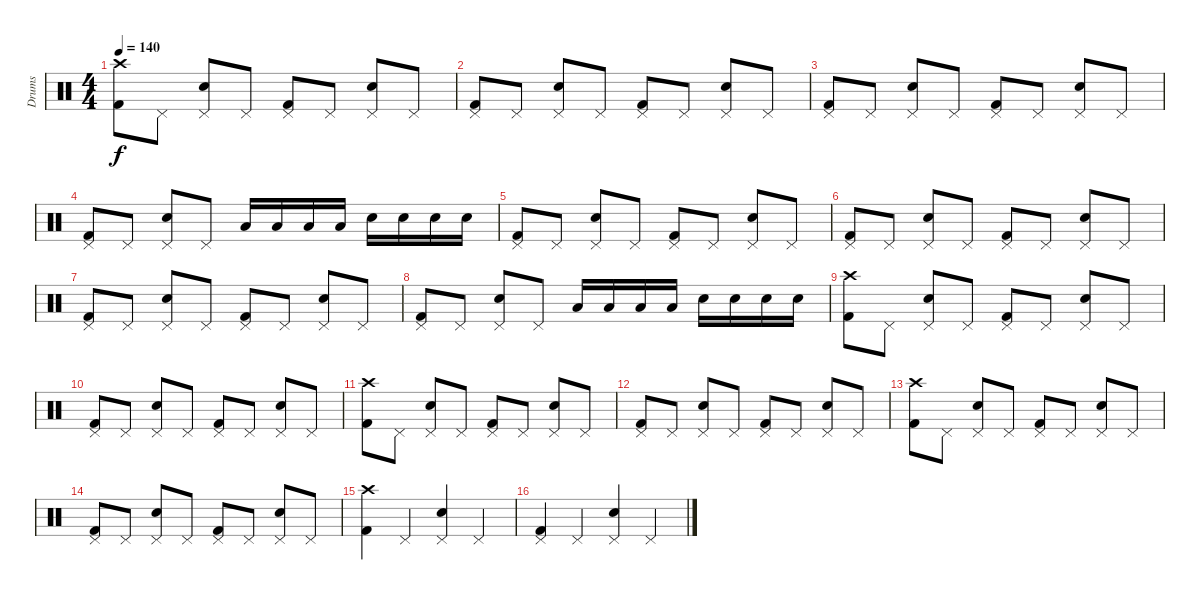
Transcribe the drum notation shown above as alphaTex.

\track ("Drums" "Drums") {instrument percussion}
\staff {score}
\articulation defaults
\ts (4 4)
\tempo 140
\clef neutral
\ks c
("Crash high (hit)" "Kick (hit) 2").8{dy f} "Pedal Hi-Hat (hit)".8 ("Pedal Hi-Hat (hit)" "Snare (hit) 2").8 "Pedal Hi-Hat (hit)".8 ("Pedal Hi-Hat (hit)" "Kick (hit) 2").8 "Pedal Hi-Hat (hit)".8 ("Pedal Hi-Hat (hit)" "Snare (hit) 2").8 "Pedal Hi-Hat (hit)".8 |
("Pedal Hi-Hat (hit)" "Kick (hit) 2").8 "Pedal Hi-Hat (hit)".8 ("Pedal Hi-Hat (hit)" "Snare (hit) 2").8 "Pedal Hi-Hat (hit)".8 ("Pedal Hi-Hat (hit)" "Kick (hit) 2").8 "Pedal Hi-Hat (hit)".8 ("Pedal Hi-Hat (hit)" "Snare (hit) 2").8 "Pedal Hi-Hat (hit)".8 |
("Pedal Hi-Hat (hit)" "Kick (hit) 2").8 "Pedal Hi-Hat (hit)".8 ("Pedal Hi-Hat (hit)" "Snare (hit) 2").8 "Pedal Hi-Hat (hit)".8 ("Pedal Hi-Hat (hit)" "Kick (hit) 2").8 "Pedal Hi-Hat (hit)".8 ("Pedal Hi-Hat (hit)" "Snare (hit) 2").8 "Pedal Hi-Hat (hit)".8 |
("Pedal Hi-Hat (hit)" "Kick (hit) 2").8 "Pedal Hi-Hat (hit)".8 ("Pedal Hi-Hat (hit)" "Snare (hit) 2").8 "Pedal Hi-Hat (hit)".8 "Low Tom (hit)".16 "Low Tom (hit)".16 "Low Tom (hit)".16 "Low Tom (hit)".16 "Snare (hit) 2".16 "Snare (hit) 2".16 "Snare (hit) 2".16 "Snare (hit) 2".16 |
("Pedal Hi-Hat (hit)" "Kick (hit) 2").8 "Pedal Hi-Hat (hit)".8 ("Pedal Hi-Hat (hit)" "Snare (hit) 2").8 "Pedal Hi-Hat (hit)".8 ("Pedal Hi-Hat (hit)" "Kick (hit) 2").8 "Pedal Hi-Hat (hit)".8 ("Pedal Hi-Hat (hit)" "Snare (hit) 2").8 "Pedal Hi-Hat (hit)".8 |
("Pedal Hi-Hat (hit)" "Kick (hit) 2").8 "Pedal Hi-Hat (hit)".8 ("Pedal Hi-Hat (hit)" "Snare (hit) 2").8 "Pedal Hi-Hat (hit)".8 ("Pedal Hi-Hat (hit)" "Kick (hit) 2").8 "Pedal Hi-Hat (hit)".8 ("Pedal Hi-Hat (hit)" "Snare (hit) 2").8 "Pedal Hi-Hat (hit)".8 |
("Pedal Hi-Hat (hit)" "Kick (hit) 2").8 "Pedal Hi-Hat (hit)".8 ("Pedal Hi-Hat (hit)" "Snare (hit) 2").8 "Pedal Hi-Hat (hit)".8 ("Pedal Hi-Hat (hit)" "Kick (hit) 2").8 "Pedal Hi-Hat (hit)".8 ("Pedal Hi-Hat (hit)" "Snare (hit) 2").8 "Pedal Hi-Hat (hit)".8 |
("Pedal Hi-Hat (hit)" "Kick (hit) 2").8 "Pedal Hi-Hat (hit)".8 ("Pedal Hi-Hat (hit)" "Snare (hit) 2").8 "Pedal Hi-Hat (hit)".8 "Low Tom (hit)".16 "Low Tom (hit)".16 "Low Tom (hit)".16 "Low Tom (hit)".16 "Snare (hit) 2".16 "Snare (hit) 2".16 "Snare (hit) 2".16 "Snare (hit) 2".16 |
("Crash high (hit)" "Kick (hit) 2").8 "Pedal Hi-Hat (hit)".8 ("Pedal Hi-Hat (hit)" "Snare (hit) 2").8 "Pedal Hi-Hat (hit)".8 ("Pedal Hi-Hat (hit)" "Kick (hit) 2").8 "Pedal Hi-Hat (hit)".8 ("Pedal Hi-Hat (hit)" "Snare (hit) 2").8 "Pedal Hi-Hat (hit)".8 |
("Pedal Hi-Hat (hit)" "Kick (hit) 2").8 "Pedal Hi-Hat (hit)".8 ("Pedal Hi-Hat (hit)" "Snare (hit) 2").8 "Pedal Hi-Hat (hit)".8 ("Pedal Hi-Hat (hit)" "Kick (hit) 2").8 "Pedal Hi-Hat (hit)".8 ("Pedal Hi-Hat (hit)" "Snare (hit) 2").8 "Pedal Hi-Hat (hit)".8 |
("Crash high (hit)" "Kick (hit) 2").8 "Pedal Hi-Hat (hit)".8 ("Pedal Hi-Hat (hit)" "Snare (hit) 2").8 "Pedal Hi-Hat (hit)".8 ("Pedal Hi-Hat (hit)" "Kick (hit) 2").8 "Pedal Hi-Hat (hit)".8 ("Pedal Hi-Hat (hit)" "Snare (hit) 2").8 "Pedal Hi-Hat (hit)".8 |
("Pedal Hi-Hat (hit)" "Kick (hit) 2").8 "Pedal Hi-Hat (hit)".8 ("Pedal Hi-Hat (hit)" "Snare (hit) 2").8 "Pedal Hi-Hat (hit)".8 ("Pedal Hi-Hat (hit)" "Kick (hit) 2").8 "Pedal Hi-Hat (hit)".8 ("Pedal Hi-Hat (hit)" "Snare (hit) 2").8 "Pedal Hi-Hat (hit)".8 |
("Crash high (hit)" "Kick (hit) 2").8 "Pedal Hi-Hat (hit)".8 ("Pedal Hi-Hat (hit)" "Snare (hit) 2").8 "Pedal Hi-Hat (hit)".8 ("Pedal Hi-Hat (hit)" "Kick (hit) 2").8 "Pedal Hi-Hat (hit)".8 ("Pedal Hi-Hat (hit)" "Snare (hit) 2").8 "Pedal Hi-Hat (hit)".8 |
("Pedal Hi-Hat (hit)" "Kick (hit) 2").8 "Pedal Hi-Hat (hit)".8 ("Pedal Hi-Hat (hit)" "Snare (hit) 2").8 "Pedal Hi-Hat (hit)".8 ("Pedal Hi-Hat (hit)" "Kick (hit) 2").8 "Pedal Hi-Hat (hit)".8 ("Pedal Hi-Hat (hit)" "Snare (hit) 2").8 "Pedal Hi-Hat (hit)".8 |
("Crash high (hit)" "Kick (hit) 2").4 "Pedal Hi-Hat (hit)".4 ("Pedal Hi-Hat (hit)" "Snare (hit) 2").4 "Pedal Hi-Hat (hit)".4 |
("Pedal Hi-Hat (hit)" "Kick (hit) 2").4 "Pedal Hi-Hat (hit)".4 ("Pedal Hi-Hat (hit)" "Snare (hit) 2").4 "Pedal Hi-Hat (hit)".4
